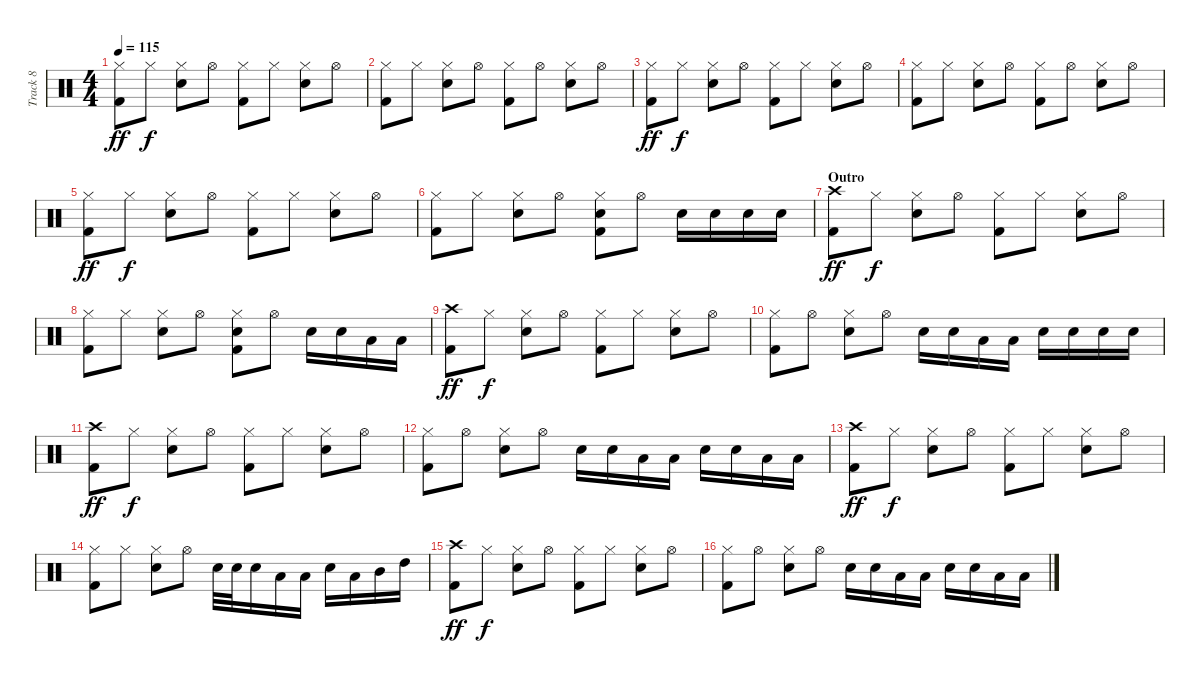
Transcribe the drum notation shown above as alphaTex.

\track ("Track 8" "Track 8") {instrument percussion}
\staff {score}
\articulation defaults
\ts (4 4)
\tempo 115
\clef neutral
\ks c
("Hi-Hat (closed)" "Kick (hit) 2").8{dy ff} "Hi-Hat (closed)".8{dy f} ("Hi-Hat (closed)" "Electric Snare (hit)").8 "Hi-Hat (open)".8 ("Hi-Hat (closed)" "Kick (hit) 2").8 "Hi-Hat (closed)".8 ("Hi-Hat (closed)" "Electric Snare (hit)").8 "Hi-Hat (open)".8 |
("Hi-Hat (closed)" "Kick (hit) 2").8 "Hi-Hat (closed)".8 ("Hi-Hat (closed)" "Electric Snare (hit)").8 "Hi-Hat (open)".8 ("Hi-Hat (closed)" "Kick (hit) 2").8 "Hi-Hat (open)".8 ("Hi-Hat (closed)" "Electric Snare (hit)").8 "Hi-Hat (open)".8 |
("Hi-Hat (closed)" "Kick (hit) 2").8{dy ff} "Hi-Hat (closed)".8{dy f} ("Hi-Hat (closed)" "Electric Snare (hit)").8 "Hi-Hat (open)".8 ("Hi-Hat (closed)" "Kick (hit) 2").8 "Hi-Hat (closed)".8 ("Hi-Hat (closed)" "Electric Snare (hit)").8 "Hi-Hat (open)".8 |
("Hi-Hat (closed)" "Kick (hit) 2").8 "Hi-Hat (closed)".8 ("Hi-Hat (closed)" "Electric Snare (hit)").8 "Hi-Hat (open)".8 ("Hi-Hat (closed)" "Kick (hit) 2").8 "Hi-Hat (open)".8 ("Hi-Hat (closed)" "Electric Snare (hit)").8 "Hi-Hat (open)".8 |
("Hi-Hat (closed)" "Kick (hit) 2").8{dy ff} "Hi-Hat (closed)".8{dy f} ("Hi-Hat (closed)" "Electric Snare (hit)").8 "Hi-Hat (open)".8 ("Hi-Hat (closed)" "Kick (hit) 2").8 "Hi-Hat (closed)".8 ("Hi-Hat (closed)" "Electric Snare (hit)").8 "Hi-Hat (open)".8 |
("Hi-Hat (closed)" "Kick (hit) 2").8 "Hi-Hat (closed)".8 ("Hi-Hat (closed)" "Electric Snare (hit)").8 "Hi-Hat (open)".8 ("Hi-Hat (closed)" "Kick (hit) 2" "Electric Snare (hit)").8 "Hi-Hat (open)".8 "Electric Snare (hit)".16 "Electric Snare (hit)".16 "Electric Snare (hit)".16 "Electric Snare (hit)".16 |
\section ("" "Outro")
("Crash high (hit)" "Kick (hit) 2").8{dy ff} "Hi-Hat (closed)".8{dy f} ("Hi-Hat (closed)" "Electric Snare (hit)").8 "Hi-Hat (open)".8 ("Hi-Hat (closed)" "Kick (hit) 2").8 "Hi-Hat (closed)".8 ("Hi-Hat (closed)" "Electric Snare (hit)").8 "Hi-Hat (open)".8 |
("Hi-Hat (closed)" "Kick (hit) 2").8 "Hi-Hat (closed)".8 ("Hi-Hat (closed)" "Electric Snare (hit)").8 "Hi-Hat (open)".8 ("Hi-Hat (closed)" "Kick (hit) 2" "Electric Snare (hit)").8 "Hi-Hat (open)".8 "Electric Snare (hit)".16 "Electric Snare (hit)".16 "Low Tom (hit)".16 "Low Tom (hit)".16 |
("Crash high (hit)" "Kick (hit) 2").8{dy ff} "Hi-Hat (closed)".8{dy f} ("Hi-Hat (closed)" "Electric Snare (hit)").8 "Hi-Hat (open)".8 ("Hi-Hat (closed)" "Kick (hit) 2").8 "Hi-Hat (closed)".8 ("Hi-Hat (closed)" "Electric Snare (hit)").8 "Hi-Hat (open)".8 |
("Hi-Hat (closed)" "Kick (hit) 2").8 "Hi-Hat (open)".8 ("Hi-Hat (closed)" "Electric Snare (hit)").8 "Hi-Hat (open)".8 "Electric Snare (hit)".16 "Electric Snare (hit)".16 "Low Tom (hit)".16 "Low Tom (hit)".16 "Electric Snare (hit)".16 "Electric Snare (hit)".16 "Electric Snare (hit)".16 "Electric Snare (hit)".16 |
("Crash high (hit)" "Kick (hit) 2").8{dy ff} "Hi-Hat (closed)".8{dy f} ("Hi-Hat (closed)" "Electric Snare (hit)").8 "Hi-Hat (open)".8 ("Hi-Hat (closed)" "Kick (hit) 2").8 "Hi-Hat (closed)".8 ("Hi-Hat (closed)" "Electric Snare (hit)").8 "Hi-Hat (open)".8 |
("Hi-Hat (closed)" "Kick (hit) 2").8 "Hi-Hat (open)".8 ("Hi-Hat (closed)" "Electric Snare (hit)").8 "Hi-Hat (open)".8 "Electric Snare (hit)".16 "Electric Snare (hit)".16 "Low Tom (hit)".16 "Low Tom (hit)".16 "Electric Snare (hit)".16 "Electric Snare (hit)".16 "Low Tom (hit)".16 "Low Tom (hit)".16 |
("Crash high (hit)" "Kick (hit) 2").8{dy ff} "Hi-Hat (closed)".8{dy f} ("Hi-Hat (closed)" "Electric Snare (hit)").8 "Hi-Hat (open)".8 ("Hi-Hat (closed)" "Kick (hit) 2").8 "Hi-Hat (closed)".8 ("Hi-Hat (closed)" "Electric Snare (hit)").8 "Hi-Hat (open)".8 |
("Hi-Hat (closed)" "Kick (hit) 2").8 "Hi-Hat (closed)".8 ("Hi-Hat (closed)" "Electric Snare (hit)").8 "Hi-Hat (open)".8 "Electric Snare (hit)".32 "Electric Snare (hit)".32 "Electric Snare (hit)".16 "Low Tom (hit)".16 "Low Tom (hit)".16 "Electric Snare (hit)".16 "Low Tom (hit)".16 "Mid Tom (hit)".16 "High Tom (hit)".16 |
("Crash high (hit)" "Kick (hit) 2").8{dy ff} "Hi-Hat (closed)".8{dy f} ("Hi-Hat (closed)" "Electric Snare (hit)").8 "Hi-Hat (open)".8 ("Hi-Hat (closed)" "Kick (hit) 2").8 "Hi-Hat (closed)".8 ("Hi-Hat (closed)" "Electric Snare (hit)").8 "Hi-Hat (open)".8 |
("Hi-Hat (closed)" "Kick (hit) 2").8 "Hi-Hat (open)".8 ("Hi-Hat (closed)" "Electric Snare (hit)").8 "Hi-Hat (open)".8 "Electric Snare (hit)".16 "Electric Snare (hit)".16 "Low Tom (hit)".16 "Low Tom (hit)".16 "Electric Snare (hit)".16 "Electric Snare (hit)".16 "Low Tom (hit)".16 "Low Tom (hit)".16
